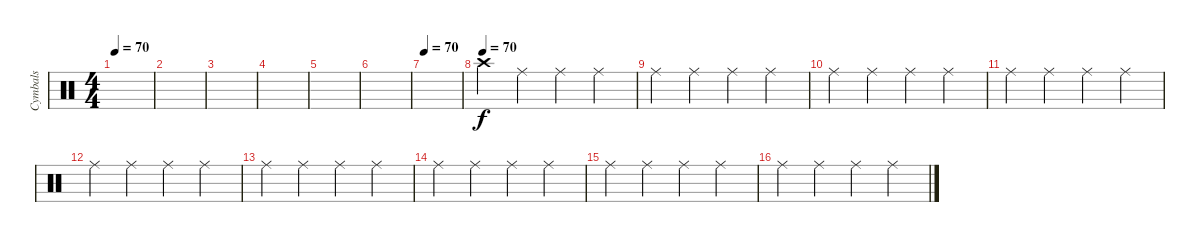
\track ("Cymbals" "Cymbals") {instrument percussion}
\staff {score}
\articulation defaults
\ts (4 4)
\tempo 70
\clef neutral
\ks c
|
|
|
|
|
|
\tempo 70
|
\tempo (70)
"Crash high (hit)".4 "Ride (middle)".4 "Ride (middle)".4 "Ride (middle)".4 |
"Ride (middle)".4 "Ride (middle)".4 "Ride (middle)".4 "Ride (middle)".4 |
"Ride (middle)".4 "Ride (middle)".4 "Ride (middle)".4 "Ride (middle)".4 |
"Ride (middle)".4 "Ride (middle)".4 "Ride (middle)".4 "Ride (middle)".4 |
"Ride (middle)".4 "Ride (middle)".4 "Ride (middle)".4 "Ride (middle)".4 |
"Ride (middle)".4 "Ride (middle)".4 "Ride (middle)".4 "Ride (middle)".4 |
"Ride (middle)".4 "Ride (middle)".4 "Ride (middle)".4 "Ride (middle)".4 |
"Ride (middle)".4 "Ride (middle)".4 "Ride (middle)".4 "Ride (middle)".4 |
"Ride (middle)".4 "Ride (middle)".4 "Ride (middle)".4 "Ride (middle)".4
